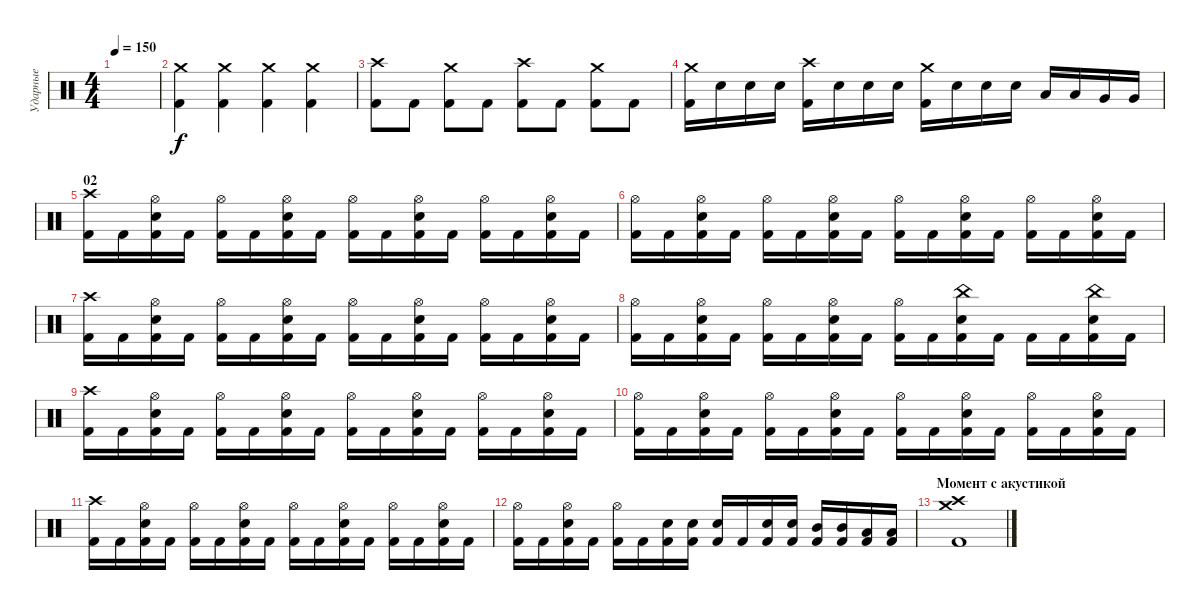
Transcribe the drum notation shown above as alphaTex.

\track ("Ударные" "Ударные") {instrument percussion}
\staff {score}
\articulation defaults
\ts (4 4)
\tempo 150
\clef neutral
\ks c
|
("Crash medium (hit)" "Kick (hit) 2").4 ("Crash medium (hit)" "Kick (hit) 2").4 ("Crash medium (hit)" "Kick (hit) 2").4 ("Crash medium (hit)" "Kick (hit) 2").4 |
("Crash high (hit)" "Kick (hit) 2").8 "Kick (hit) 2".8 ("Crash medium (hit)" "Kick (hit) 2").8 "Kick (hit) 2".8 ("Crash high (hit)" "Kick (hit) 2").8 "Kick (hit) 2".8 ("Crash medium (hit)" "Kick (hit) 2").8 "Kick (hit) 2".8 |
("Crash medium (hit)" "Kick (hit) 2").16 "Electric Snare (hit)".16 "Electric Snare (hit)".16 "Electric Snare (hit)".16 ("Crash high (hit)" "Kick (hit) 2").16 "Electric Snare (hit)".16 "Electric Snare (hit)".16 "Electric Snare (hit)".16 ("Crash medium (hit)" "Kick (hit) 2").16 "Electric Snare (hit)".16 "Electric Snare (hit)".16 "Electric Snare (hit)".16 "Low Tom (hit)".16 "Low Tom (hit)".16 "Very Low Tom (hit)".16 "Very Low Tom (hit)".16 |
\section ("" "02")
("Crash high (hit)" "Kick (hit) 2").16 "Kick (hit) 2".16 ("Hi-Hat (open)" "Electric Snare (hit)" "Kick (hit) 2").16 "Kick (hit) 2".16 ("Hi-Hat (open)" "Kick (hit) 2").16 "Kick (hit) 2".16 ("Hi-Hat (open)" "Electric Snare (hit)" "Kick (hit) 2").16 "Kick (hit) 2".16 ("Hi-Hat (open)" "Kick (hit) 2").16 "Kick (hit) 2".16 ("Hi-Hat (open)" "Electric Snare (hit)" "Kick (hit) 2").16 "Kick (hit) 2".16 ("Hi-Hat (open)" "Kick (hit) 2").16 "Kick (hit) 2".16 ("Hi-Hat (open)" "Electric Snare (hit)" "Kick (hit) 2").16 "Kick (hit) 2".16 |
("Hi-Hat (open)" "Kick (hit) 2").16 "Kick (hit) 2".16 ("Hi-Hat (open)" "Electric Snare (hit)" "Kick (hit) 2").16 "Kick (hit) 2".16 ("Hi-Hat (open)" "Kick (hit) 2").16 "Kick (hit) 2".16 ("Hi-Hat (open)" "Electric Snare (hit)" "Kick (hit) 2").16 "Kick (hit) 2".16 ("Hi-Hat (open)" "Kick (hit) 2").16 "Kick (hit) 2".16 ("Hi-Hat (open)" "Electric Snare (hit)" "Kick (hit) 2").16 "Kick (hit) 2".16 ("Hi-Hat (open)" "Kick (hit) 2").16 "Kick (hit) 2".16 ("Hi-Hat (open)" "Electric Snare (hit)" "Kick (hit) 2").16 "Kick (hit) 2".16 |
("Crash high (hit)" "Kick (hit) 2").16 "Kick (hit) 2".16 ("Hi-Hat (open)" "Electric Snare (hit)" "Kick (hit) 2").16 "Kick (hit) 2".16 ("Hi-Hat (open)" "Kick (hit) 2").16 "Kick (hit) 2".16 ("Hi-Hat (open)" "Electric Snare (hit)" "Kick (hit) 2").16 "Kick (hit) 2".16 ("Hi-Hat (open)" "Kick (hit) 2").16 "Kick (hit) 2".16 ("Hi-Hat (open)" "Electric Snare (hit)" "Kick (hit) 2").16 "Kick (hit) 2".16 ("Hi-Hat (open)" "Kick (hit) 2").16 "Kick (hit) 2".16 ("Hi-Hat (open)" "Electric Snare (hit)" "Kick (hit) 2").16 "Kick (hit) 2".16 |
("Hi-Hat (open)" "Kick (hit) 2").16 "Kick (hit) 2".16 ("Hi-Hat (open)" "Electric Snare (hit)" "Kick (hit) 2").16 "Kick (hit) 2".16 ("Hi-Hat (open)" "Kick (hit) 2").16 "Kick (hit) 2".16 ("Hi-Hat (open)" "Electric Snare (hit)" "Kick (hit) 2").16 "Kick (hit) 2".16 ("Hi-Hat (open)" "Kick (hit) 2").16 "Kick (hit) 2".16 ("China (hit)" "Electric Snare (hit)" "Kick (hit) 2").16 "Kick (hit) 2".16 "Kick (hit) 2".16 "Kick (hit) 2".16 ("China (hit)" "Electric Snare (hit)" "Kick (hit) 2").16 "Kick (hit) 2".16 |
("Crash high (hit)" "Kick (hit) 2").16 "Kick (hit) 2".16 ("Hi-Hat (open)" "Electric Snare (hit)" "Kick (hit) 2").16 "Kick (hit) 2".16 ("Hi-Hat (open)" "Kick (hit) 2").16 "Kick (hit) 2".16 ("Hi-Hat (open)" "Electric Snare (hit)" "Kick (hit) 2").16 "Kick (hit) 2".16 ("Hi-Hat (open)" "Kick (hit) 2").16 "Kick (hit) 2".16 ("Hi-Hat (open)" "Electric Snare (hit)" "Kick (hit) 2").16 "Kick (hit) 2".16 ("Hi-Hat (open)" "Kick (hit) 2").16 "Kick (hit) 2".16 ("Hi-Hat (open)" "Electric Snare (hit)" "Kick (hit) 2").16 "Kick (hit) 2".16 |
("Hi-Hat (open)" "Kick (hit) 2").16 "Kick (hit) 2".16 ("Hi-Hat (open)" "Electric Snare (hit)" "Kick (hit) 2").16 "Kick (hit) 2".16 ("Hi-Hat (open)" "Kick (hit) 2").16 "Kick (hit) 2".16 ("Hi-Hat (open)" "Electric Snare (hit)" "Kick (hit) 2").16 "Kick (hit) 2".16 ("Hi-Hat (open)" "Kick (hit) 2").16 "Kick (hit) 2".16 ("Hi-Hat (open)" "Electric Snare (hit)" "Kick (hit) 2").16 "Kick (hit) 2".16 ("Hi-Hat (open)" "Kick (hit) 2").16 "Kick (hit) 2".16 ("Hi-Hat (open)" "Electric Snare (hit)" "Kick (hit) 2").16 "Kick (hit) 2".16 |
("Crash high (hit)" "Kick (hit) 2").16 "Kick (hit) 2".16 ("Hi-Hat (open)" "Electric Snare (hit)" "Kick (hit) 2").16 "Kick (hit) 2".16 ("Hi-Hat (open)" "Kick (hit) 2").16 "Kick (hit) 2".16 ("Hi-Hat (open)" "Electric Snare (hit)" "Kick (hit) 2").16 "Kick (hit) 2".16 ("Hi-Hat (open)" "Kick (hit) 2").16 "Kick (hit) 2".16 ("Hi-Hat (open)" "Electric Snare (hit)" "Kick (hit) 2").16 "Kick (hit) 2".16 ("Hi-Hat (open)" "Kick (hit) 2").16 "Kick (hit) 2".16 ("Hi-Hat (open)" "Electric Snare (hit)" "Kick (hit) 2").16 "Kick (hit) 2".16 |
("Hi-Hat (open)" "Kick (hit) 2").16 "Kick (hit) 2".16 ("Hi-Hat (open)" "Electric Snare (hit)" "Kick (hit) 2").16 "Kick (hit) 2".16 ("Hi-Hat (open)" "Kick (hit) 2").16 "Kick (hit) 2".16 ("Electric Snare (hit)" "Kick (hit) 2").16 ("Electric Snare (hit)" "Kick (hit) 2").16 ("Electric Snare (hit)" "Kick (hit) 2").16 "Kick (hit) 2".16 ("Electric Snare (hit)" "Kick (hit) 2").16 ("Electric Snare (hit)" "Kick (hit) 2").16 ("Mid Tom (hit)" "Kick (hit) 2").16 ("Mid Tom (hit)" "Kick (hit) 2").16 ("Low Tom (hit)" "Kick (hit) 2").16 ("Low Tom (hit)" "Kick (hit) 2").16 |
\section ("" "Момент с акустикой")
("Crash high (hit)" "Crash medium (hit)" "Kick (hit) 2").1
